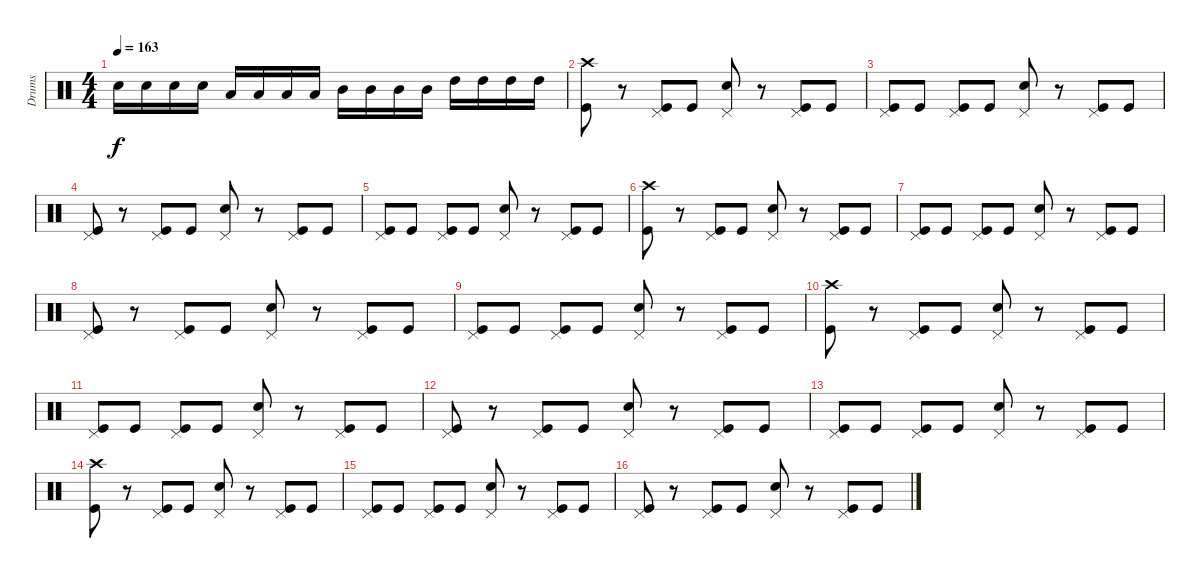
\track ("Drums" "Drums") {instrument percussion}
\staff {score}
\articulation defaults
\ts (4 4)
\tempo 163
\clef neutral
\ks c "Snare (hit) 2".16{dy f} "Snare (hit) 2".16 "Snare (hit) 2".16 "Snare (hit) 2".16 "Low Tom (hit)".16 "Low Tom (hit)".16 "Low Tom (hit)".16 "Low Tom (hit)".16 "Mid Tom (hit)".16 "Mid Tom (hit)".16 "Mid Tom (hit)".16 "Mid Tom (hit)".16 "High Tom (hit)".16 "High Tom (hit)".16 "High Tom (hit)".16 "High Tom (hit)".16
|
("Crash high (hit)" "Kick (hit)").8 r.8 ("Pedal Hi-Hat (hit)" "Kick (hit)").8 "Kick (hit)".8 ("Pedal Hi-Hat (hit)" "Snare (hit) 2").8 r.8 ("Pedal Hi-Hat (hit)" "Kick (hit)").8 "Kick (hit)".8 |
("Pedal Hi-Hat (hit)" "Kick (hit)").8 "Kick (hit)".8 ("Pedal Hi-Hat (hit)" "Kick (hit)").8 "Kick (hit)".8 ("Pedal Hi-Hat (hit)" "Snare (hit) 2").8 r.8 ("Pedal Hi-Hat (hit)" "Kick (hit)").8 "Kick (hit)".8 |
("Pedal Hi-Hat (hit)" "Kick (hit)").8 r.8 ("Pedal Hi-Hat (hit)" "Kick (hit)").8 "Kick (hit)".8 ("Pedal Hi-Hat (hit)" "Snare (hit) 2").8 r.8 ("Pedal Hi-Hat (hit)" "Kick (hit)").8 "Kick (hit)".8 |
("Pedal Hi-Hat (hit)" "Kick (hit)").8 "Kick (hit)".8 ("Pedal Hi-Hat (hit)" "Kick (hit)").8 "Kick (hit)".8 ("Pedal Hi-Hat (hit)" "Snare (hit) 2").8 r.8 ("Pedal Hi-Hat (hit)" "Kick (hit)").8 "Kick (hit)".8 |
("Crash high (hit)" "Kick (hit)").8 r.8 ("Pedal Hi-Hat (hit)" "Kick (hit)").8 "Kick (hit)".8 ("Pedal Hi-Hat (hit)" "Snare (hit) 2").8 r.8 ("Pedal Hi-Hat (hit)" "Kick (hit)").8 "Kick (hit)".8 |
("Pedal Hi-Hat (hit)" "Kick (hit)").8 "Kick (hit)".8 ("Pedal Hi-Hat (hit)" "Kick (hit)").8 "Kick (hit)".8 ("Pedal Hi-Hat (hit)" "Snare (hit) 2").8 r.8 ("Pedal Hi-Hat (hit)" "Kick (hit)").8 "Kick (hit)".8 |
("Pedal Hi-Hat (hit)" "Kick (hit)").8 r.8 ("Pedal Hi-Hat (hit)" "Kick (hit)").8 "Kick (hit)".8 ("Pedal Hi-Hat (hit)" "Snare (hit) 2").8 r.8 ("Pedal Hi-Hat (hit)" "Kick (hit)").8 "Kick (hit)".8 |
("Pedal Hi-Hat (hit)" "Kick (hit)").8 "Kick (hit)".8 ("Pedal Hi-Hat (hit)" "Kick (hit)").8 "Kick (hit)".8 ("Pedal Hi-Hat (hit)" "Snare (hit) 2").8 r.8 ("Pedal Hi-Hat (hit)" "Kick (hit)").8 "Kick (hit)".8 |
("Crash high (hit)" "Kick (hit)").8 r.8 ("Pedal Hi-Hat (hit)" "Kick (hit)").8 "Kick (hit)".8 ("Pedal Hi-Hat (hit)" "Snare (hit) 2").8 r.8 ("Pedal Hi-Hat (hit)" "Kick (hit)").8 "Kick (hit)".8 |
("Pedal Hi-Hat (hit)" "Kick (hit)").8 "Kick (hit)".8 ("Pedal Hi-Hat (hit)" "Kick (hit)").8 "Kick (hit)".8 ("Pedal Hi-Hat (hit)" "Snare (hit) 2").8 r.8 ("Pedal Hi-Hat (hit)" "Kick (hit)").8 "Kick (hit)".8 |
("Pedal Hi-Hat (hit)" "Kick (hit)").8 r.8 ("Pedal Hi-Hat (hit)" "Kick (hit)").8 "Kick (hit)".8 ("Pedal Hi-Hat (hit)" "Snare (hit) 2").8 r.8 ("Pedal Hi-Hat (hit)" "Kick (hit)").8 "Kick (hit)".8 |
("Pedal Hi-Hat (hit)" "Kick (hit)").8 "Kick (hit)".8 ("Pedal Hi-Hat (hit)" "Kick (hit)").8 "Kick (hit)".8 ("Pedal Hi-Hat (hit)" "Snare (hit) 2").8 r.8 ("Pedal Hi-Hat (hit)" "Kick (hit)").8 "Kick (hit)".8 |
("Crash high (hit)" "Kick (hit)").8 r.8 ("Pedal Hi-Hat (hit)" "Kick (hit)").8 "Kick (hit)".8 ("Pedal Hi-Hat (hit)" "Snare (hit) 2").8 r.8 ("Pedal Hi-Hat (hit)" "Kick (hit)").8 "Kick (hit)".8 |
("Pedal Hi-Hat (hit)" "Kick (hit)").8 "Kick (hit)".8 ("Pedal Hi-Hat (hit)" "Kick (hit)").8 "Kick (hit)".8 ("Pedal Hi-Hat (hit)" "Snare (hit) 2").8 r.8 ("Pedal Hi-Hat (hit)" "Kick (hit)").8 "Kick (hit)".8 |
("Pedal Hi-Hat (hit)" "Kick (hit)").8 r.8 ("Pedal Hi-Hat (hit)" "Kick (hit)").8 "Kick (hit)".8 ("Pedal Hi-Hat (hit)" "Snare (hit) 2").8 r.8 ("Pedal Hi-Hat (hit)" "Kick (hit)").8 "Kick (hit)".8
